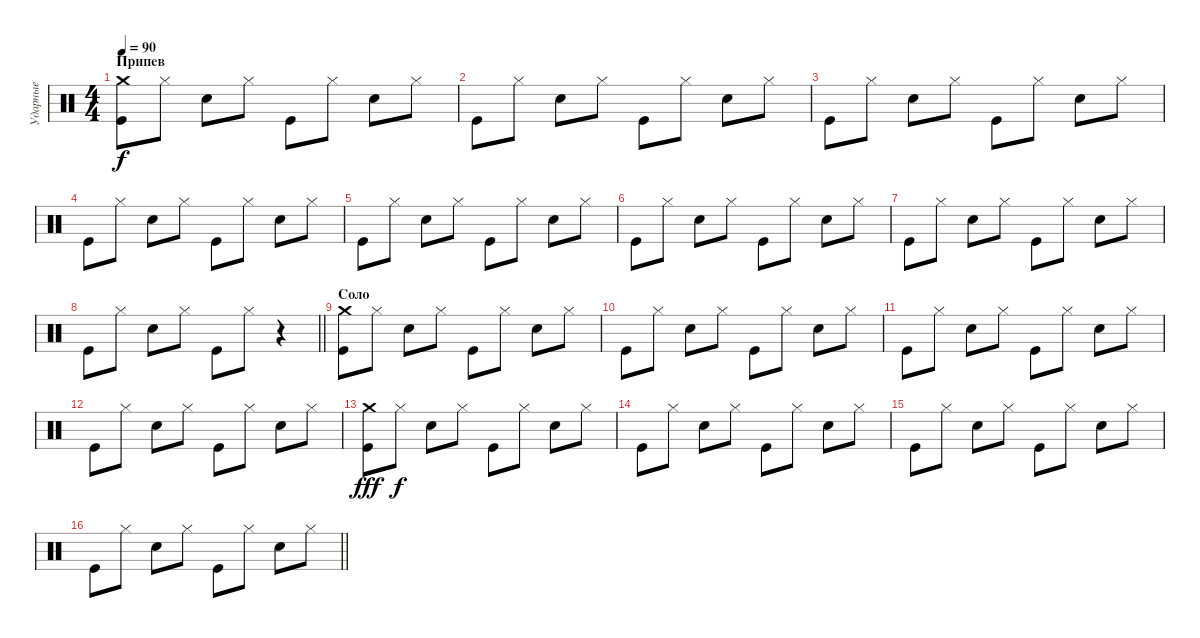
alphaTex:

\track ("Ударные" "Ударные") {instrument percussion}
\staff {score}
\articulation defaults
\ts (4 4)
\section ("" "Припев")
\tempo 90
\clef neutral
\ks c
("Crash medium (hit)" "Kick (hit)").8{dy f} "Hi-Hat (closed)".8 "Electric Snare (hit)".8 "Hi-Hat (closed)".8 "Kick (hit)".8 "Hi-Hat (closed)".8 "Electric Snare (hit)".8 "Hi-Hat (closed)".8 |
"Kick (hit)".8 "Hi-Hat (closed)".8 "Electric Snare (hit)".8 "Hi-Hat (closed)".8 "Kick (hit)".8 "Hi-Hat (closed)".8 "Electric Snare (hit)".8 "Hi-Hat (closed)".8 |
"Kick (hit)".8 "Hi-Hat (closed)".8 "Electric Snare (hit)".8 "Hi-Hat (closed)".8 "Kick (hit)".8 "Hi-Hat (closed)".8 "Electric Snare (hit)".8 "Hi-Hat (closed)".8 |
"Kick (hit)".8 "Hi-Hat (closed)".8 "Electric Snare (hit)".8 "Hi-Hat (closed)".8 "Kick (hit)".8 "Hi-Hat (closed)".8 "Electric Snare (hit)".8 "Hi-Hat (closed)".8 |
"Kick (hit)".8 "Hi-Hat (closed)".8 "Electric Snare (hit)".8 "Hi-Hat (closed)".8 "Kick (hit)".8 "Hi-Hat (closed)".8 "Electric Snare (hit)".8 "Hi-Hat (closed)".8 |
"Kick (hit)".8 "Hi-Hat (closed)".8 "Electric Snare (hit)".8 "Hi-Hat (closed)".8 "Kick (hit)".8 "Hi-Hat (closed)".8 "Electric Snare (hit)".8 "Hi-Hat (closed)".8 |
"Kick (hit)".8 "Hi-Hat (closed)".8 "Electric Snare (hit)".8 "Hi-Hat (closed)".8 "Kick (hit)".8 "Hi-Hat (closed)".8 "Electric Snare (hit)".8 "Hi-Hat (closed)".8 |
\barLineRight lightlight "Kick (hit)".8 "Hi-Hat (closed)".8 "Electric Snare (hit)".8 "Hi-Hat (closed)".8 "Kick (hit)".8 "Hi-Hat (closed)".8
r.4 |
\section ("" "Соло")
("Crash medium (hit)" "Kick (hit)").8 "Hi-Hat (closed)".8 "Electric Snare (hit)".8 "Hi-Hat (closed)".8 "Kick (hit)".8 "Hi-Hat (closed)".8 "Electric Snare (hit)".8 "Hi-Hat (closed)".8 |
"Kick (hit)".8 "Hi-Hat (closed)".8 "Electric Snare (hit)".8 "Hi-Hat (closed)".8 "Kick (hit)".8 "Hi-Hat (closed)".8 "Electric Snare (hit)".8 "Hi-Hat (closed)".8 |
"Kick (hit)".8 "Hi-Hat (closed)".8 "Electric Snare (hit)".8 "Hi-Hat (closed)".8 "Kick (hit)".8 "Hi-Hat (closed)".8 "Electric Snare (hit)".8 "Hi-Hat (closed)".8 |
"Kick (hit)".8 "Hi-Hat (closed)".8 "Electric Snare (hit)".8 "Hi-Hat (closed)".8 "Kick (hit)".8 "Hi-Hat (closed)".8 "Electric Snare (hit)".8 "Hi-Hat (closed)".8 |
("Crash medium (hit)" "Kick (hit)").8{dy fff} "Hi-Hat (closed)".8{dy f} "Electric Snare (hit)".8 "Hi-Hat (closed)".8 "Kick (hit)".8 "Hi-Hat (closed)".8 "Electric Snare (hit)".8 "Hi-Hat (closed)".8 |
"Kick (hit)".8 "Hi-Hat (closed)".8 "Electric Snare (hit)".8 "Hi-Hat (closed)".8 "Kick (hit)".8 "Hi-Hat (closed)".8 "Electric Snare (hit)".8 "Hi-Hat (closed)".8 |
"Kick (hit)".8 "Hi-Hat (closed)".8 "Electric Snare (hit)".8 "Hi-Hat (closed)".8 "Kick (hit)".8 "Hi-Hat (closed)".8 "Electric Snare (hit)".8 "Hi-Hat (closed)".8 |
\barLineRight lightlight "Kick (hit)".8 "Hi-Hat (closed)".8 "Electric Snare (hit)".8 "Hi-Hat (closed)".8 "Kick (hit)".8 "Hi-Hat (closed)".8 "Electric Snare (hit)".8 "Hi-Hat (closed)".8
